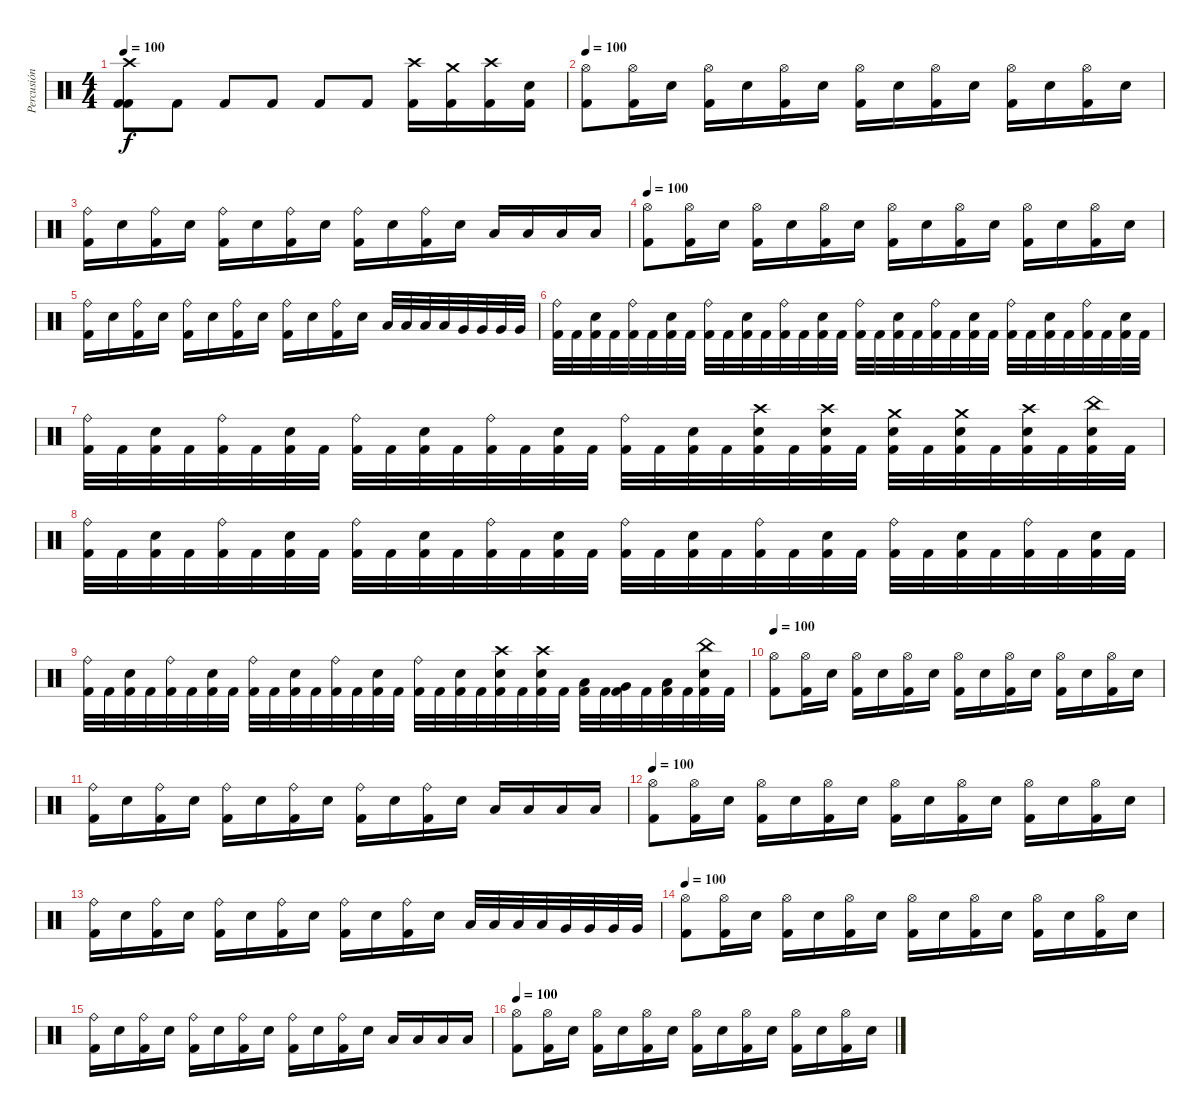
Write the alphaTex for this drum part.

\track ("Percusión" "Percusión") {instrument percussion}
\staff {score}
\articulation defaults
\ts (4 4)
\tempo 100
\clef neutral
\ks c
("Kick (hit) 2" "Crash high (hit)" "Kick (hit) 2").8{dy f} "Kick (hit) 2".8 "Kick (hit) 2".8 "Kick (hit) 2".8 "Kick (hit) 2".8 "Kick (hit) 2".8 ("Crash high (hit)" "Kick (hit) 2").16 ("Crash medium (hit)" "Kick (hit) 2").16 ("Crash high (hit)" "Kick (hit) 2").16 ("Snare (hit) 2" "Kick (hit) 2").16 |
\tempo 100
("Hi-Hat (open)" "Kick (hit) 2").8 ("Hi-Hat (open)" "Kick (hit) 2").16 "Snare (hit) 2".16 ("Hi-Hat (open)" "Kick (hit) 2").16 "Snare (hit) 2".16 ("Hi-Hat (open)" "Kick (hit) 2").16 "Snare (hit) 2".16 ("Hi-Hat (open)" "Kick (hit) 2").16 "Snare (hit) 2".16 ("Hi-Hat (open)" "Kick (hit) 2").16 "Snare (hit) 2".16 ("Hi-Hat (open)" "Kick (hit) 2").16 "Snare (hit) 2".16 ("Hi-Hat (open)" "Kick (hit) 2").16 "Snare (hit) 2".16 |
("Ride (bell)" "Kick (hit) 2").16 "Snare (hit) 2".16 ("Ride (bell)" "Kick (hit) 2").16 "Snare (hit) 2".16 ("Ride (bell)" "Kick (hit) 2").16 "Snare (hit) 2".16 ("Ride (bell)" "Kick (hit) 2").16 "Snare (hit) 2".16 ("Ride (bell)" "Kick (hit) 2").16 "Snare (hit) 2".16 ("Ride (bell)" "Kick (hit) 2").16 "Snare (hit) 2".16 "Low Tom (hit)".16 "Low Tom (hit)".16 "Low Floor Tom (hit)".16 "Low Floor Tom (hit)".16 |
\tempo 100
("Hi-Hat (open)" "Kick (hit) 2").8 ("Hi-Hat (open)" "Kick (hit) 2").16 "Snare (hit) 2".16 ("Hi-Hat (open)" "Kick (hit) 2").16 "Snare (hit) 2".16 ("Hi-Hat (open)" "Kick (hit) 2").16 "Snare (hit) 2".16 ("Hi-Hat (open)" "Kick (hit) 2").16 "Snare (hit) 2".16 ("Hi-Hat (open)" "Kick (hit) 2").16 "Snare (hit) 2".16 ("Hi-Hat (open)" "Kick (hit) 2").16 "Snare (hit) 2".16 ("Hi-Hat (open)" "Kick (hit) 2").16 "Snare (hit) 2".16 |
("Ride (bell)" "Kick (hit) 2").16 "Snare (hit) 2".16 ("Ride (bell)" "Kick (hit) 2").16 "Snare (hit) 2".16 ("Ride (bell)" "Kick (hit) 2").16 "Snare (hit) 2".16 ("Ride (bell)" "Kick (hit) 2").16 "Snare (hit) 2".16 ("Ride (bell)" "Kick (hit) 2").16 "Snare (hit) 2".16 ("Ride (bell)" "Kick (hit) 2").16 "Snare (hit) 2".16 "Low Tom (hit)".32 "Low Tom (hit)".32 "Low Tom (hit)".32 "Low Tom (hit)".32 "Very Low Tom (hit)".32 "Very Low Tom (hit)".32 "Very Low Tom (hit)".32 "Very Low Tom (hit)".32 |
("Kick (hit) 2" "Ride (bell)").32 "Kick (hit) 2".32 ("Kick (hit) 2" "Snare (hit) 2").32 "Kick (hit) 2".32 ("Kick (hit) 2" "Ride (bell)").32 "Kick (hit) 2".32 ("Kick (hit) 2" "Snare (hit) 2").32 "Kick (hit) 2".32 ("Kick (hit) 2" "Ride (bell)").32 "Kick (hit) 2".32 ("Kick (hit) 2" "Snare (hit) 2").32 "Kick (hit) 2".32 ("Kick (hit) 2" "Ride (bell)").32 "Kick (hit) 2".32 ("Kick (hit) 2" "Snare (hit) 2").32 "Kick (hit) 2".32 ("Kick (hit) 2" "Ride (bell)").32 "Kick (hit) 2".32 ("Kick (hit) 2" "Snare (hit) 2").32 "Kick (hit) 2".32 ("Kick (hit) 2" "Ride (bell)").32 "Kick (hit) 2".32 ("Kick (hit) 2" "Snare (hit) 2").32 "Kick (hit) 2".32 ("Kick (hit) 2" "Ride (bell)").32 "Kick (hit) 2".32 ("Kick (hit) 2" "Snare (hit) 2").32 "Kick (hit) 2".32 ("Kick (hit) 2" "Ride (bell)").32 "Kick (hit) 2".32 ("Kick (hit) 2" "Snare (hit) 2").32 "Kick (hit) 2".32 |
("Kick (hit) 2" "Ride (bell)").32 "Kick (hit) 2".32 ("Kick (hit) 2" "Snare (hit) 2").32 "Kick (hit) 2".32 ("Kick (hit) 2" "Ride (bell)").32 "Kick (hit) 2".32 ("Kick (hit) 2" "Snare (hit) 2").32 "Kick (hit) 2".32 ("Kick (hit) 2" "Ride (bell)").32 "Kick (hit) 2".32 ("Kick (hit) 2" "Snare (hit) 2").32 "Kick (hit) 2".32 ("Kick (hit) 2" "Ride (bell)").32 "Kick (hit) 2".32 ("Kick (hit) 2" "Snare (hit) 2").32 "Kick (hit) 2".32 ("Kick (hit) 2" "Ride (bell)").32 "Kick (hit) 2".32 ("Kick (hit) 2" "Snare (hit) 2").32 "Kick (hit) 2".32 ("Kick (hit) 2" "Crash high (hit)" "Snare (hit) 2").32 "Kick (hit) 2".32 ("Kick (hit) 2" "Crash high (hit)" "Snare (hit) 2").32 "Kick (hit) 2".32 ("Kick (hit) 2" "Crash medium (hit)" "Snare (hit) 2").32 "Kick (hit) 2".32 ("Kick (hit) 2" "Crash medium (hit)" "Snare (hit) 2").32 "Kick (hit) 2".32 ("Kick (hit) 2" "Crash high (hit)" "Snare (hit) 2").32 "Kick (hit) 2".32 ("Kick (hit) 2" "China (hit)" "Snare (hit) 2").32 "Kick (hit) 2".32 |
("Kick (hit) 2" "Ride (bell)").32 "Kick (hit) 2".32 ("Kick (hit) 2" "Snare (hit) 2").32 "Kick (hit) 2".32 ("Kick (hit) 2" "Ride (bell)").32 "Kick (hit) 2".32 ("Kick (hit) 2" "Snare (hit) 2").32 "Kick (hit) 2".32 ("Kick (hit) 2" "Ride (bell)").32 "Kick (hit) 2".32 ("Kick (hit) 2" "Snare (hit) 2").32 "Kick (hit) 2".32 ("Kick (hit) 2" "Ride (bell)").32 "Kick (hit) 2".32 ("Kick (hit) 2" "Snare (hit) 2").32 "Kick (hit) 2".32 ("Kick (hit) 2" "Ride (bell)").32 "Kick (hit) 2".32 ("Kick (hit) 2" "Snare (hit) 2").32 "Kick (hit) 2".32 ("Kick (hit) 2" "Ride (bell)").32 "Kick (hit) 2".32 ("Kick (hit) 2" "Snare (hit) 2").32 "Kick (hit) 2".32 ("Kick (hit) 2" "Ride (bell)").32 "Kick (hit) 2".32 ("Kick (hit) 2" "Snare (hit) 2").32 "Kick (hit) 2".32 ("Kick (hit) 2" "Ride (bell)").32 "Kick (hit) 2".32 ("Kick (hit) 2" "Snare (hit) 2").32 "Kick (hit) 2".32 |
("Kick (hit) 2" "Ride (bell)").32 "Kick (hit) 2".32 ("Kick (hit) 2" "Snare (hit) 2").32 "Kick (hit) 2".32 ("Kick (hit) 2" "Ride (bell)").32 "Kick (hit) 2".32 ("Kick (hit) 2" "Snare (hit) 2").32 "Kick (hit) 2".32 ("Kick (hit) 2" "Ride (bell)").32 "Kick (hit) 2".32 ("Kick (hit) 2" "Snare (hit) 2").32 "Kick (hit) 2".32 ("Kick (hit) 2" "Ride (bell)").32 "Kick (hit) 2".32 ("Kick (hit) 2" "Snare (hit) 2").32 "Kick (hit) 2".32 ("Kick (hit) 2" "Ride (bell)").32 "Kick (hit) 2".32 ("Kick (hit) 2" "Snare (hit) 2").32 "Kick (hit) 2".32 ("Kick (hit) 2" "Crash high (hit)" "Snare (hit) 2").32 "Kick (hit) 2".32 ("Kick (hit) 2" "Crash high (hit)" "Snare (hit) 2").32 "Kick (hit) 2".32 ("Kick (hit) 2" "Low Tom (hit)").32 "Kick (hit) 2".32 ("Kick (hit) 2" "Very Low Tom (hit)").32 "Kick (hit) 2".32 ("Kick (hit) 2" "Low Floor Tom (hit)").32 "Kick (hit) 2".32 ("Kick (hit) 2" "China (hit)" "Snare (hit) 2").32 "Kick (hit) 2".32 |
\tempo 100
("Hi-Hat (open)" "Kick (hit) 2").8 ("Hi-Hat (open)" "Kick (hit) 2").16 "Snare (hit) 2".16 ("Hi-Hat (open)" "Kick (hit) 2").16 "Snare (hit) 2".16 ("Hi-Hat (open)" "Kick (hit) 2").16 "Snare (hit) 2".16 ("Hi-Hat (open)" "Kick (hit) 2").16 "Snare (hit) 2".16 ("Hi-Hat (open)" "Kick (hit) 2").16 "Snare (hit) 2".16 ("Hi-Hat (open)" "Kick (hit) 2").16 "Snare (hit) 2".16 ("Hi-Hat (open)" "Kick (hit) 2").16 "Snare (hit) 2".16 |
("Ride (bell)" "Kick (hit) 2").16 "Snare (hit) 2".16 ("Ride (bell)" "Kick (hit) 2").16 "Snare (hit) 2".16 ("Ride (bell)" "Kick (hit) 2").16 "Snare (hit) 2".16 ("Ride (bell)" "Kick (hit) 2").16 "Snare (hit) 2".16 ("Ride (bell)" "Kick (hit) 2").16 "Snare (hit) 2".16 ("Ride (bell)" "Kick (hit) 2").16 "Snare (hit) 2".16 "Low Tom (hit)".16 "Low Tom (hit)".16 "Low Floor Tom (hit)".16 "Low Floor Tom (hit)".16 |
\tempo 100
("Hi-Hat (open)" "Kick (hit) 2").8 ("Hi-Hat (open)" "Kick (hit) 2").16 "Snare (hit) 2".16 ("Hi-Hat (open)" "Kick (hit) 2").16 "Snare (hit) 2".16 ("Hi-Hat (open)" "Kick (hit) 2").16 "Snare (hit) 2".16 ("Hi-Hat (open)" "Kick (hit) 2").16 "Snare (hit) 2".16 ("Hi-Hat (open)" "Kick (hit) 2").16 "Snare (hit) 2".16 ("Hi-Hat (open)" "Kick (hit) 2").16 "Snare (hit) 2".16 ("Hi-Hat (open)" "Kick (hit) 2").16 "Snare (hit) 2".16 |
("Ride (bell)" "Kick (hit) 2").16 "Snare (hit) 2".16 ("Ride (bell)" "Kick (hit) 2").16 "Snare (hit) 2".16 ("Ride (bell)" "Kick (hit) 2").16 "Snare (hit) 2".16 ("Ride (bell)" "Kick (hit) 2").16 "Snare (hit) 2".16 ("Ride (bell)" "Kick (hit) 2").16 "Snare (hit) 2".16 ("Ride (bell)" "Kick (hit) 2").16 "Snare (hit) 2".16 "Low Tom (hit)".32 "Low Tom (hit)".32 "Low Tom (hit)".32 "Low Tom (hit)".32 "Very Low Tom (hit)".32 "Very Low Tom (hit)".32 "Very Low Tom (hit)".32 "Very Low Tom (hit)".32 |
\tempo 100
("Hi-Hat (open)" "Kick (hit) 2").8 ("Hi-Hat (open)" "Kick (hit) 2").16 "Snare (hit) 2".16 ("Hi-Hat (open)" "Kick (hit) 2").16 "Snare (hit) 2".16 ("Hi-Hat (open)" "Kick (hit) 2").16 "Snare (hit) 2".16 ("Hi-Hat (open)" "Kick (hit) 2").16 "Snare (hit) 2".16 ("Hi-Hat (open)" "Kick (hit) 2").16 "Snare (hit) 2".16 ("Hi-Hat (open)" "Kick (hit) 2").16 "Snare (hit) 2".16 ("Hi-Hat (open)" "Kick (hit) 2").16 "Snare (hit) 2".16 |
("Ride (bell)" "Kick (hit) 2").16 "Snare (hit) 2".16 ("Ride (bell)" "Kick (hit) 2").16 "Snare (hit) 2".16 ("Ride (bell)" "Kick (hit) 2").16 "Snare (hit) 2".16 ("Ride (bell)" "Kick (hit) 2").16 "Snare (hit) 2".16 ("Ride (bell)" "Kick (hit) 2").16 "Snare (hit) 2".16 ("Ride (bell)" "Kick (hit) 2").16 "Snare (hit) 2".16 "Low Tom (hit)".16 "Low Tom (hit)".16 "Low Floor Tom (hit)".16 "Low Floor Tom (hit)".16 |
\tempo 100
("Hi-Hat (open)" "Kick (hit) 2").8 ("Hi-Hat (open)" "Kick (hit) 2").16 "Snare (hit) 2".16 ("Hi-Hat (open)" "Kick (hit) 2").16 "Snare (hit) 2".16 ("Hi-Hat (open)" "Kick (hit) 2").16 "Snare (hit) 2".16 ("Hi-Hat (open)" "Kick (hit) 2").16 "Snare (hit) 2".16 ("Hi-Hat (open)" "Kick (hit) 2").16 "Snare (hit) 2".16 ("Hi-Hat (open)" "Kick (hit) 2").16 "Snare (hit) 2".16 ("Hi-Hat (open)" "Kick (hit) 2").16 "Snare (hit) 2".16
